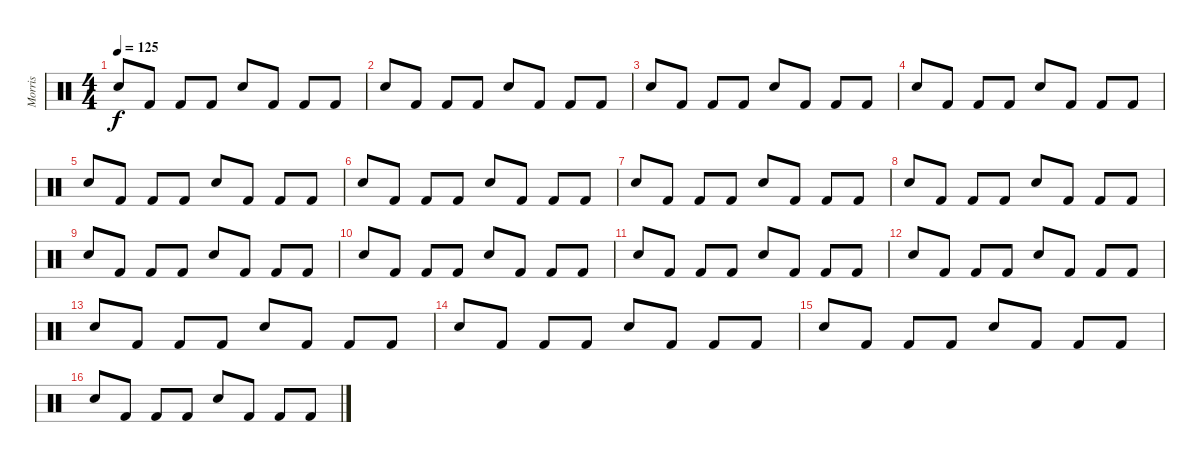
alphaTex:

\track ("Morris" "Morris") {instrument percussion}
\staff {score}
\articulation defaults
\ts (4 4)
\tempo 125
\clef neutral
\ks c "Electric Snare (hit)".8{dy f} "Kick (hit) 2".8 "Kick (hit) 2".8 "Kick (hit) 2".8 "Electric Snare (hit)".8 "Kick (hit) 2".8 "Kick (hit) 2".8 "Kick (hit) 2".8
|
"Electric Snare (hit)".8 "Kick (hit) 2".8 "Kick (hit) 2".8 "Kick (hit) 2".8 "Electric Snare (hit)".8 "Kick (hit) 2".8 "Kick (hit) 2".8 "Kick (hit) 2".8 |
"Electric Snare (hit)".8 "Kick (hit) 2".8 "Kick (hit) 2".8 "Kick (hit) 2".8 "Electric Snare (hit)".8 "Kick (hit) 2".8 "Kick (hit) 2".8 "Kick (hit) 2".8 |
"Electric Snare (hit)".8 "Kick (hit) 2".8 "Kick (hit) 2".8 "Kick (hit) 2".8 "Electric Snare (hit)".8 "Kick (hit) 2".8 "Kick (hit) 2".8 "Kick (hit) 2".8 |
"Electric Snare (hit)".8 "Kick (hit) 2".8 "Kick (hit) 2".8 "Kick (hit) 2".8 "Electric Snare (hit)".8 "Kick (hit) 2".8 "Kick (hit) 2".8 "Kick (hit) 2".8 |
"Electric Snare (hit)".8 "Kick (hit) 2".8 "Kick (hit) 2".8 "Kick (hit) 2".8 "Electric Snare (hit)".8 "Kick (hit) 2".8 "Kick (hit) 2".8 "Kick (hit) 2".8 |
"Electric Snare (hit)".8 "Kick (hit) 2".8 "Kick (hit) 2".8 "Kick (hit) 2".8 "Electric Snare (hit)".8 "Kick (hit) 2".8 "Kick (hit) 2".8 "Kick (hit) 2".8 |
"Electric Snare (hit)".8 "Kick (hit) 2".8 "Kick (hit) 2".8 "Kick (hit) 2".8 "Electric Snare (hit)".8 "Kick (hit) 2".8 "Kick (hit) 2".8 "Kick (hit) 2".8 |
"Electric Snare (hit)".8 "Kick (hit) 2".8 "Kick (hit) 2".8 "Kick (hit) 2".8 "Electric Snare (hit)".8 "Kick (hit) 2".8 "Kick (hit) 2".8 "Kick (hit) 2".8 |
"Electric Snare (hit)".8 "Kick (hit) 2".8 "Kick (hit) 2".8 "Kick (hit) 2".8 "Electric Snare (hit)".8 "Kick (hit) 2".8 "Kick (hit) 2".8 "Kick (hit) 2".8 |
"Electric Snare (hit)".8 "Kick (hit) 2".8 "Kick (hit) 2".8 "Kick (hit) 2".8 "Electric Snare (hit)".8 "Kick (hit) 2".8 "Kick (hit) 2".8 "Kick (hit) 2".8 |
"Electric Snare (hit)".8 "Kick (hit) 2".8 "Kick (hit) 2".8 "Kick (hit) 2".8 "Electric Snare (hit)".8 "Kick (hit) 2".8 "Kick (hit) 2".8 "Kick (hit) 2".8 |
"Electric Snare (hit)".8 "Kick (hit) 2".8 "Kick (hit) 2".8 "Kick (hit) 2".8 "Electric Snare (hit)".8 "Kick (hit) 2".8 "Kick (hit) 2".8 "Kick (hit) 2".8 |
"Electric Snare (hit)".8 "Kick (hit) 2".8 "Kick (hit) 2".8 "Kick (hit) 2".8 "Electric Snare (hit)".8 "Kick (hit) 2".8 "Kick (hit) 2".8 "Kick (hit) 2".8 |
"Electric Snare (hit)".8 "Kick (hit) 2".8 "Kick (hit) 2".8 "Kick (hit) 2".8 "Electric Snare (hit)".8 "Kick (hit) 2".8 "Kick (hit) 2".8 "Kick (hit) 2".8 |
"Electric Snare (hit)".8 "Kick (hit) 2".8 "Kick (hit) 2".8 "Kick (hit) 2".8 "Electric Snare (hit)".8 "Kick (hit) 2".8 "Kick (hit) 2".8 "Kick (hit) 2".8
